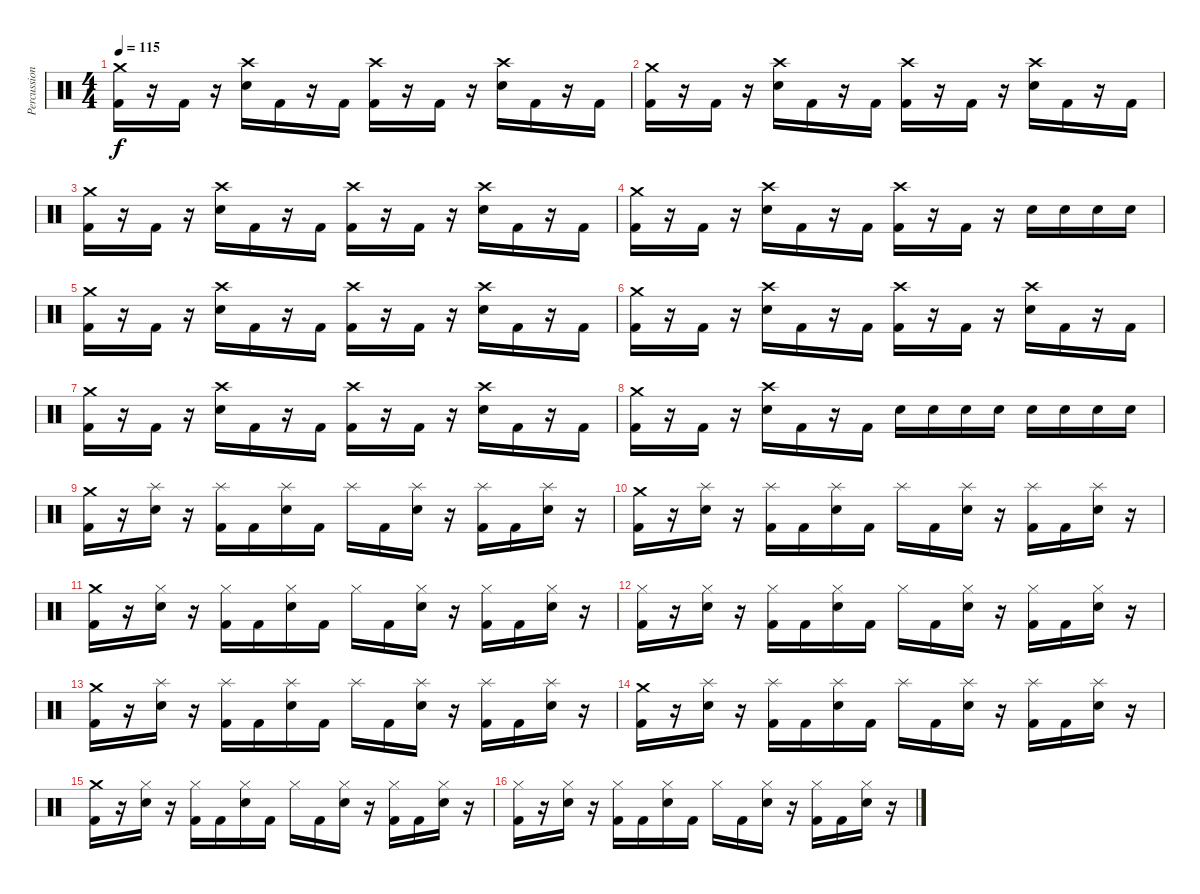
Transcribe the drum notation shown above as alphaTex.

\track ("Percussioni" "Percussion") {instrument percussion}
\staff {score}
\articulation defaults
\ts (4 4)
\tempo 115
\clef neutral
\ks c
("Crash medium (hit)" "Kick (hit) 2").16{dy f} r.16 "Kick (hit) 2".16 r.16 ("Crash high (hit)" "Electric Snare (hit)").16 "Kick (hit) 2".16 r.16 "Kick (hit) 2".16 ("Crash high (hit)" "Kick (hit) 2").16 r.16 "Kick (hit) 2".16 r.16 ("Crash high (hit)" "Electric Snare (hit)").16 "Kick (hit) 2".16 r.16 "Kick (hit) 2".16 |
("Crash medium (hit)" "Kick (hit) 2").16 r.16 "Kick (hit) 2".16 r.16 ("Crash high (hit)" "Electric Snare (hit)").16 "Kick (hit) 2".16 r.16 "Kick (hit) 2".16 ("Crash high (hit)" "Kick (hit) 2").16 r.16 "Kick (hit) 2".16 r.16 ("Crash high (hit)" "Electric Snare (hit)").16 "Kick (hit) 2".16 r.16 "Kick (hit) 2".16 |
("Crash medium (hit)" "Kick (hit) 2").16 r.16 "Kick (hit) 2".16 r.16 ("Crash high (hit)" "Electric Snare (hit)").16 "Kick (hit) 2".16 r.16 "Kick (hit) 2".16 ("Crash high (hit)" "Kick (hit) 2").16 r.16 "Kick (hit) 2".16 r.16 ("Crash high (hit)" "Electric Snare (hit)").16 "Kick (hit) 2".16 r.16 "Kick (hit) 2".16 |
("Crash medium (hit)" "Kick (hit) 2").16 r.16 "Kick (hit) 2".16 r.16 ("Crash high (hit)" "Electric Snare (hit)").16 "Kick (hit) 2".16 r.16 "Kick (hit) 2".16 ("Crash high (hit)" "Kick (hit) 2").16 r.16 "Kick (hit) 2".16 r.16 "Electric Snare (hit)".16 "Electric Snare (hit)".16 "Electric Snare (hit)".16 "Electric Snare (hit)".16 |
("Crash medium (hit)" "Kick (hit) 2").16 r.16 "Kick (hit) 2".16 r.16 ("Crash high (hit)" "Electric Snare (hit)").16 "Kick (hit) 2".16 r.16 "Kick (hit) 2".16 ("Crash high (hit)" "Kick (hit) 2").16 r.16 "Kick (hit) 2".16 r.16 ("Crash high (hit)" "Electric Snare (hit)").16 "Kick (hit) 2".16 r.16 "Kick (hit) 2".16 |
("Crash medium (hit)" "Kick (hit) 2").16 r.16 "Kick (hit) 2".16 r.16 ("Crash high (hit)" "Electric Snare (hit)").16 "Kick (hit) 2".16 r.16 "Kick (hit) 2".16 ("Crash high (hit)" "Kick (hit) 2").16 r.16 "Kick (hit) 2".16 r.16 ("Crash high (hit)" "Electric Snare (hit)").16 "Kick (hit) 2".16 r.16 "Kick (hit) 2".16 |
("Crash medium (hit)" "Kick (hit) 2").16 r.16 "Kick (hit) 2".16 r.16 ("Crash high (hit)" "Electric Snare (hit)").16 "Kick (hit) 2".16 r.16 "Kick (hit) 2".16 ("Crash high (hit)" "Kick (hit) 2").16 r.16 "Kick (hit) 2".16 r.16 ("Crash high (hit)" "Electric Snare (hit)").16 "Kick (hit) 2".16 r.16 "Kick (hit) 2".16 |
("Crash medium (hit)" "Kick (hit) 2").16 r.16 "Kick (hit) 2".16 r.16 ("Crash high (hit)" "Electric Snare (hit)").16 "Kick (hit) 2".16 r.16 "Kick (hit) 2".16 "Electric Snare (hit)".16 "Electric Snare (hit)".16 "Electric Snare (hit)".16 "Electric Snare (hit)".16 "Electric Snare (hit)".16 "Electric Snare (hit)".16 "Electric Snare (hit)".16 "Electric Snare (hit)".16 |
("Crash medium (hit)" "Kick (hit) 2").16 r.16 ("Splash (hit)" "Electric Snare (hit)").16 r.16 ("Splash (hit)" "Kick (hit) 2").16 "Kick (hit) 2".16 ("Splash (hit)" "Electric Snare (hit)").16 "Kick (hit) 2".16 "Splash (hit)".16 "Kick (hit) 2".16 ("Splash (hit)" "Electric Snare (hit)").16 r.16 ("Splash (hit)" "Kick (hit) 2").16 "Kick (hit) 2".16 ("Splash (hit)" "Electric Snare (hit)").16 r.16 |
("Crash medium (hit)" "Kick (hit) 2").16 r.16 ("Splash (hit)" "Electric Snare (hit)").16 r.16 ("Splash (hit)" "Kick (hit) 2").16 "Kick (hit) 2".16 ("Splash (hit)" "Electric Snare (hit)").16 "Kick (hit) 2".16 "Splash (hit)".16 "Kick (hit) 2".16 ("Splash (hit)" "Electric Snare (hit)").16 r.16 ("Splash (hit)" "Kick (hit) 2").16 "Kick (hit) 2".16 ("Splash (hit)" "Electric Snare (hit)").16 r.16 |
("Crash medium (hit)" "Kick (hit) 2").16 r.16 ("Hi-Hat (closed)" "Electric Snare (hit)").16 r.16 ("Hi-Hat (closed)" "Kick (hit) 2").16 "Kick (hit) 2".16 ("Hi-Hat (closed)" "Electric Snare (hit)").16 "Kick (hit) 2".16 "Hi-Hat (closed)".16 "Kick (hit) 2".16 ("Hi-Hat (closed)" "Electric Snare (hit)").16 r.16 ("Hi-Hat (closed)" "Kick (hit) 2").16 "Kick (hit) 2".16 ("Hi-Hat (closed)" "Electric Snare (hit)").16 r.16 |
("Hi-Hat (closed)" "Kick (hit) 2").16 r.16 ("Hi-Hat (closed)" "Electric Snare (hit)").16 r.16 ("Hi-Hat (closed)" "Kick (hit) 2").16 "Kick (hit) 2".16 ("Hi-Hat (closed)" "Electric Snare (hit)").16 "Kick (hit) 2".16 "Hi-Hat (closed)".16 "Kick (hit) 2".16 ("Hi-Hat (closed)" "Electric Snare (hit)").16 r.16 ("Hi-Hat (closed)" "Kick (hit) 2").16 "Kick (hit) 2".16 ("Hi-Hat (closed)" "Electric Snare (hit)").16 r.16 |
("Crash medium (hit)" "Kick (hit) 2").16 r.16 ("Splash (hit)" "Electric Snare (hit)").16 r.16 ("Splash (hit)" "Kick (hit) 2").16 "Kick (hit) 2".16 ("Splash (hit)" "Electric Snare (hit)").16 "Kick (hit) 2".16 "Splash (hit)".16 "Kick (hit) 2".16 ("Splash (hit)" "Electric Snare (hit)").16 r.16 ("Splash (hit)" "Kick (hit) 2").16 "Kick (hit) 2".16 ("Splash (hit)" "Electric Snare (hit)").16 r.16 |
("Crash medium (hit)" "Kick (hit) 2").16 r.16 ("Splash (hit)" "Electric Snare (hit)").16 r.16 ("Splash (hit)" "Kick (hit) 2").16 "Kick (hit) 2".16 ("Splash (hit)" "Electric Snare (hit)").16 "Kick (hit) 2".16 "Splash (hit)".16 "Kick (hit) 2".16 ("Splash (hit)" "Electric Snare (hit)").16 r.16 ("Splash (hit)" "Kick (hit) 2").16 "Kick (hit) 2".16 ("Splash (hit)" "Electric Snare (hit)").16 r.16 |
("Crash medium (hit)" "Kick (hit) 2").16 r.16 ("Hi-Hat (closed)" "Electric Snare (hit)").16 r.16 ("Hi-Hat (closed)" "Kick (hit) 2").16 "Kick (hit) 2".16 ("Hi-Hat (closed)" "Electric Snare (hit)").16 "Kick (hit) 2".16 "Hi-Hat (closed)".16 "Kick (hit) 2".16 ("Hi-Hat (closed)" "Electric Snare (hit)").16 r.16 ("Hi-Hat (closed)" "Kick (hit) 2").16 "Kick (hit) 2".16 ("Hi-Hat (closed)" "Electric Snare (hit)").16 r.16 |
("Hi-Hat (closed)" "Kick (hit) 2").16 r.16 ("Hi-Hat (closed)" "Electric Snare (hit)").16 r.16 ("Hi-Hat (closed)" "Kick (hit) 2").16 "Kick (hit) 2".16 ("Hi-Hat (closed)" "Electric Snare (hit)").16 "Kick (hit) 2".16 "Hi-Hat (closed)".16 "Kick (hit) 2".16 ("Hi-Hat (closed)" "Electric Snare (hit)").16 r.16 ("Hi-Hat (closed)" "Kick (hit) 2").16 "Kick (hit) 2".16 ("Hi-Hat (closed)" "Electric Snare (hit)").16 r.16
